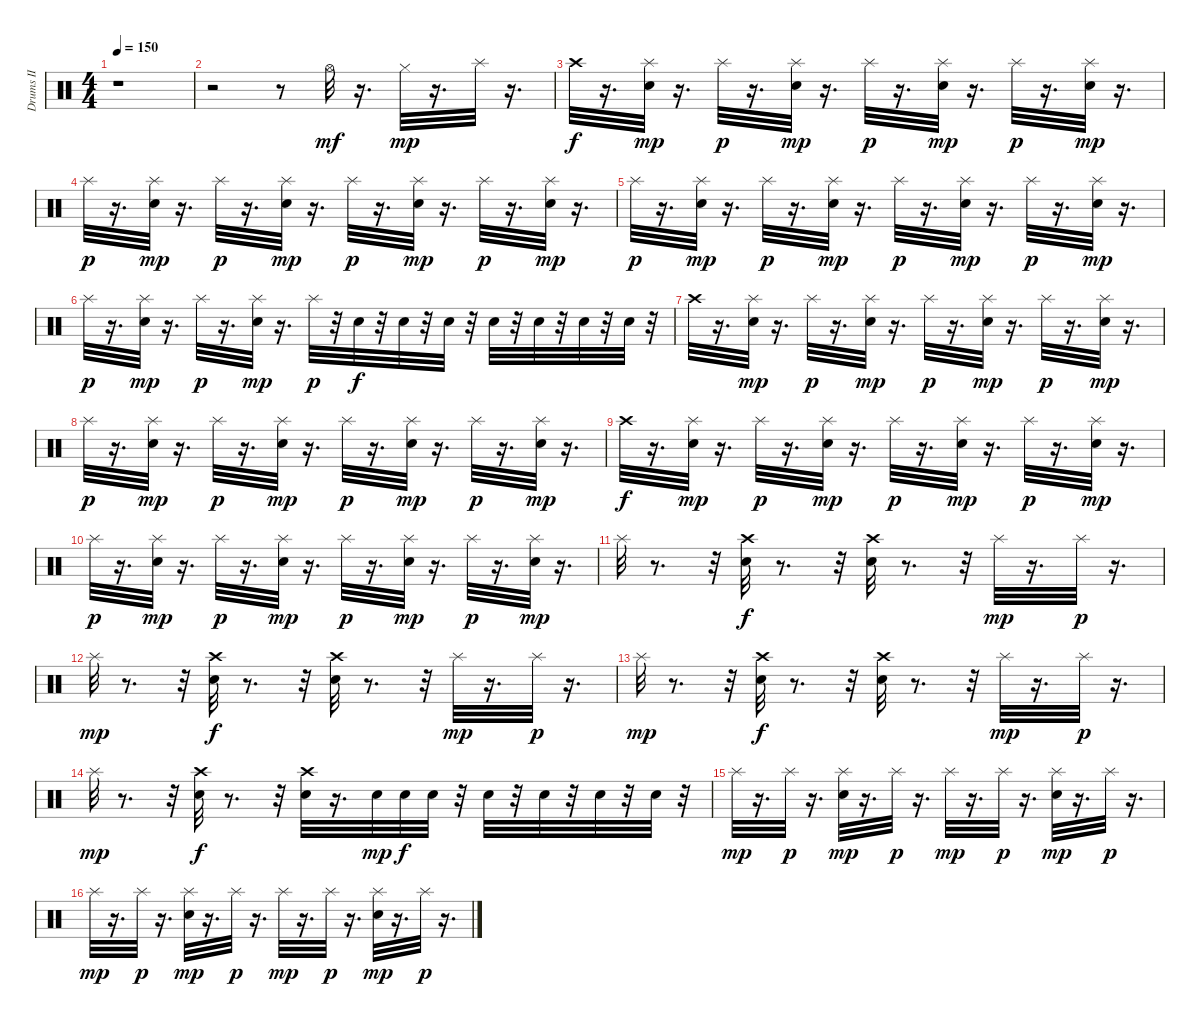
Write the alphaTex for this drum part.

\track ("Drums II" "Drums II") {instrument percussion}
\staff {score}
\articulation defaults
\ts (4 4)
\tempo 150
\clef neutral
\ks c
r.1{dy mf} |
r.2 r.8 "Hi-Hat (open)".32 r.16{d} "Hi-Hat (closed)".32{dy mp} r.16{d} "Splash (hit)".32 r.16{d} |
"Crash high (hit)".32{dy f} r.16{d} ("Snare (hit) 2" "Splash (hit)").32{dy mp} r.16{d} "Splash (hit)".32{dy p} r.16{d} ("Snare (hit) 2" "Splash (hit)").32{dy mp} r.16{d} "Splash (hit)".32{dy p} r.16{d} ("Snare (hit) 2" "Splash (hit)").32{dy mp} r.16{d} "Splash (hit)".32{dy p} r.16{d} ("Snare (hit) 2" "Splash (hit)").32{dy mp} r.16{d} |
"Splash (hit)".32{dy p} r.16{d} ("Snare (hit) 2" "Splash (hit)").32{dy mp} r.16{d} "Splash (hit)".32{dy p} r.16{d} ("Snare (hit) 2" "Splash (hit)").32{dy mp} r.16{d} "Splash (hit)".32{dy p} r.16{d} ("Snare (hit) 2" "Splash (hit)").32{dy mp} r.16{d} "Splash (hit)".32{dy p} r.16{d} ("Snare (hit) 2" "Splash (hit)").32{dy mp} r.16{d} |
"Splash (hit)".32{dy p} r.16{d} ("Snare (hit) 2" "Splash (hit)").32{dy mp} r.16{d} "Splash (hit)".32{dy p} r.16{d} ("Snare (hit) 2" "Splash (hit)").32{dy mp} r.16{d} "Splash (hit)".32{dy p} r.16{d} ("Snare (hit) 2" "Splash (hit)").32{dy mp} r.16{d} "Splash (hit)".32{dy p} r.16{d} ("Snare (hit) 2" "Splash (hit)").32{dy mp} r.16{d} |
"Splash (hit)".32{dy p} r.16{d} ("Snare (hit) 2" "Splash (hit)").32{dy mp} r.16{d} "Splash (hit)".32{dy p} r.16{d} ("Snare (hit) 2" "Splash (hit)").32{dy mp} r.16{d} "Splash (hit)".32{dy p} r.32 "Snare (hit) 2".32{dy f} r.32 "Snare (hit) 2".32 r.32 "Snare (hit) 2".32 r.32 "Snare (hit) 2".32 r.32 "Snare (hit) 2".32 r.32 "Snare (hit) 2".32 r.32 "Snare (hit) 2".32 r.32 |
"Crash high (hit)".32 r.16{d} ("Snare (hit) 2" "Splash (hit)").32{dy mp} r.16{d} "Splash (hit)".32{dy p} r.16{d} ("Snare (hit) 2" "Splash (hit)").32{dy mp} r.16{d} "Splash (hit)".32{dy p} r.16{d} ("Snare (hit) 2" "Splash (hit)").32{dy mp} r.16{d} "Splash (hit)".32{dy p} r.16{d} ("Snare (hit) 2" "Splash (hit)").32{dy mp} r.16{d} |
"Splash (hit)".32{dy p} r.16{d} ("Snare (hit) 2" "Splash (hit)").32{dy mp} r.16{d} "Splash (hit)".32{dy p} r.16{d} ("Snare (hit) 2" "Splash (hit)").32{dy mp} r.16{d} "Splash (hit)".32{dy p} r.16{d} ("Snare (hit) 2" "Splash (hit)").32{dy mp} r.16{d} "Splash (hit)".32{dy p} r.16{d} ("Snare (hit) 2" "Splash (hit)").32{dy mp} r.16{d} |
"Crash high (hit)".32{dy f} r.16{d} ("Snare (hit) 2" "Splash (hit)").32{dy mp} r.16{d} "Splash (hit)".32{dy p} r.16{d} ("Snare (hit) 2" "Splash (hit)").32{dy mp} r.16{d} "Splash (hit)".32{dy p} r.16{d} ("Snare (hit) 2" "Splash (hit)").32{dy mp} r.16{d} "Splash (hit)".32{dy p} r.16{d} ("Snare (hit) 2" "Splash (hit)").32{dy mp} r.16{d} |
"Splash (hit)".32{dy p} r.16{d} ("Snare (hit) 2" "Splash (hit)").32{dy mp} r.16{d} "Splash (hit)".32{dy p} r.16{d} ("Snare (hit) 2" "Splash (hit)").32{dy mp} r.16{d} "Splash (hit)".32{dy p} r.16{d} ("Snare (hit) 2" "Splash (hit)").32{dy mp} r.16{d} "Splash (hit)".32{dy p} r.16{d} ("Snare (hit) 2" "Splash (hit)").32{dy mp} r.16{d} |
"Splash (hit)".32 r.8{d} r.32 ("Snare (hit) 2" "Crash high (hit)").32{dy f} r.8{d} r.32 ("Snare (hit) 2" "Crash high (hit)").32 r.8{d} r.32 "Splash (hit)".32{dy mp} r.16{d} "Splash (hit)".32{dy p} r.16{d} |
"Splash (hit)".32{dy mp} r.8{d} r.32 ("Snare (hit) 2" "Crash high (hit)").32{dy f} r.8{d} r.32 ("Snare (hit) 2" "Crash high (hit)").32 r.8{d} r.32 "Splash (hit)".32{dy mp} r.16{d} "Splash (hit)".32{dy p} r.16{d} |
"Splash (hit)".32{dy mp} r.8{d} r.32 ("Snare (hit) 2" "Crash high (hit)").32{dy f} r.8{d} r.32 ("Snare (hit) 2" "Crash high (hit)").32 r.8{d} r.32 "Splash (hit)".32{dy mp} r.16{d} "Splash (hit)".32{dy p} r.16{d} |
"Splash (hit)".32{dy mp} r.8{d} r.32 ("Snare (hit) 2" "Crash high (hit)").32{dy f} r.8{d} r.32 ("Crash high (hit)" "Snare (hit) 2").32 r.16{d} "Snare (hit) 2".32{dy mp} "Snare (hit) 2".32{dy f} "Snare (hit) 2".32 r.32 "Snare (hit) 2".32 r.32 "Snare (hit) 2".32 r.32 "Snare (hit) 2".32 r.32 "Snare (hit) 2".32 r.32 |
"Splash (hit)".32{dy mp} r.16{d} "Splash (hit)".32{dy p} r.16{d} ("Snare (hit) 2" "Splash (hit)").32{dy mp} r.16{d} "Splash (hit)".32{dy p} r.16{d} "Splash (hit)".32{dy mp} r.16{d} "Splash (hit)".32{dy p} r.16{d} ("Snare (hit) 2" "Splash (hit)").32{dy mp} r.16{d} "Splash (hit)".32{dy p} r.16{d} |
"Splash (hit)".32{dy mp} r.16{d} "Splash (hit)".32{dy p} r.16{d} ("Snare (hit) 2" "Splash (hit)").32{dy mp} r.16{d} "Splash (hit)".32{dy p} r.16{d} "Splash (hit)".32{dy mp} r.16{d} "Splash (hit)".32{dy p} r.16{d} ("Snare (hit) 2" "Splash (hit)").32{dy mp} r.16{d} "Splash (hit)".32{dy p} r.16{d}
